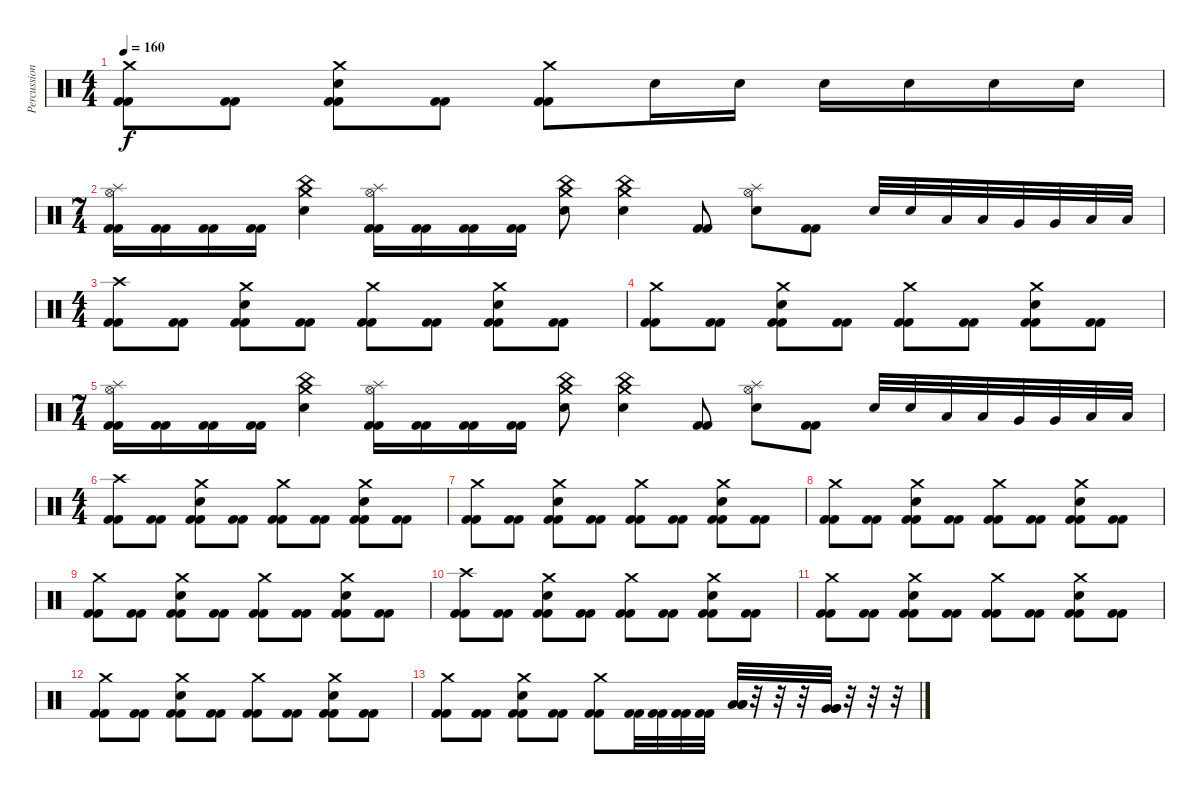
\track ("Percussion" "Percussion") {instrument percussion}
\staff {score}
\articulation defaults
\ts (4 4)
\tempo 160
\clef neutral
\ks c
("Crash medium (hit)" "Kick (hit) 2" "Kick (hit) 2").8{dy f} ("Kick (hit) 2" "Kick (hit) 2").8 ("Crash medium (hit)" "Electric Snare (hit)" "Kick (hit) 2" "Kick (hit) 2").8 ("Kick (hit) 2" "Kick (hit) 2").8 ("Crash medium (hit)" "Kick (hit) 2" "Kick (hit) 2").8 "Electric Snare (hit)".16 "Electric Snare (hit)".16 "Electric Snare (hit)".16 "Electric Snare (hit)".16 "Electric Snare (hit)".16 "Electric Snare (hit)".16 |
\ts (7 4)
("Hi-Hat (open)" "Splash (hit)" "Kick (hit) 2" "Kick (hit) 2").16 ("Kick (hit) 2" "Kick (hit) 2").16 ("Kick (hit) 2" "Kick (hit) 2").16 ("Kick (hit) 2" "Kick (hit) 2").16 ("Crash medium (hit)" "China (hit)" "Electric Snare (hit)").4 ("Hi-Hat (open)" "Splash (hit)" "Kick (hit) 2" "Kick (hit) 2").16 ("Kick (hit) 2" "Kick (hit) 2").16 ("Kick (hit) 2" "Kick (hit) 2").16 ("Kick (hit) 2" "Kick (hit) 2").16 ("Electric Snare (hit)" "China (hit)" "Crash medium (hit)").8 ("Electric Snare (hit)" "China (hit)" "Crash medium (hit)").4 ("Kick (hit) 2" "Kick (hit) 2").8 ("Splash (hit)" "Hi-Hat (open)" "Electric Snare (hit)").8 ("Kick (hit) 2" "Kick (hit) 2").8 "Electric Snare (hit)".32 "Electric Snare (hit)".32 "Low Tom (hit)".32 "Low Tom (hit)".32 "Very Low Tom (hit)".32 "Very Low Tom (hit)".32 "Low Floor Tom (hit)".32 "Low Floor Tom (hit)".32 |
\ts (4 4)
("Crash high (hit)" "Kick (hit) 2" "Kick (hit) 2").8 ("Kick (hit) 2" "Kick (hit) 2").8 ("Crash medium (hit)" "Electric Snare (hit)" "Kick (hit) 2" "Kick (hit) 2").8 ("Kick (hit) 2" "Kick (hit) 2").8 ("Crash medium (hit)" "Kick (hit) 2" "Kick (hit) 2").8 ("Kick (hit) 2" "Kick (hit) 2").8 ("Crash medium (hit)" "Electric Snare (hit)" "Kick (hit) 2" "Kick (hit) 2").8 ("Kick (hit) 2" "Kick (hit) 2").8 |
("Crash medium (hit)" "Kick (hit) 2" "Kick (hit) 2").8 ("Kick (hit) 2" "Kick (hit) 2").8 ("Crash medium (hit)" "Electric Snare (hit)" "Kick (hit) 2" "Kick (hit) 2").8 ("Kick (hit) 2" "Kick (hit) 2").8 ("Crash medium (hit)" "Kick (hit) 2" "Kick (hit) 2").8 ("Kick (hit) 2" "Kick (hit) 2").8 ("Crash medium (hit)" "Electric Snare (hit)" "Kick (hit) 2" "Kick (hit) 2").8 ("Kick (hit) 2" "Kick (hit) 2").8 |
\ts (7 4)
("Hi-Hat (open)" "Splash (hit)" "Kick (hit) 2" "Kick (hit) 2").16 ("Kick (hit) 2" "Kick (hit) 2").16 ("Kick (hit) 2" "Kick (hit) 2").16 ("Kick (hit) 2" "Kick (hit) 2").16 ("Crash medium (hit)" "China (hit)" "Electric Snare (hit)").4 ("Hi-Hat (open)" "Splash (hit)" "Kick (hit) 2" "Kick (hit) 2").16 ("Kick (hit) 2" "Kick (hit) 2").16 ("Kick (hit) 2" "Kick (hit) 2").16 ("Kick (hit) 2" "Kick (hit) 2").16 ("Electric Snare (hit)" "China (hit)" "Crash medium (hit)").8 ("Electric Snare (hit)" "China (hit)" "Crash medium (hit)").4 ("Kick (hit) 2" "Kick (hit) 2").8 ("Splash (hit)" "Hi-Hat (open)" "Electric Snare (hit)").8 ("Kick (hit) 2" "Kick (hit) 2").8 "Electric Snare (hit)".32 "Electric Snare (hit)".32 "Low Tom (hit)".32 "Low Tom (hit)".32 "Very Low Tom (hit)".32 "Very Low Tom (hit)".32 "Low Floor Tom (hit)".32 "Low Floor Tom (hit)".32 |
\ts (4 4)
("Crash high (hit)" "Kick (hit) 2" "Kick (hit) 2").8 ("Kick (hit) 2" "Kick (hit) 2").8 ("Crash medium (hit)" "Electric Snare (hit)" "Kick (hit) 2" "Kick (hit) 2").8 ("Kick (hit) 2" "Kick (hit) 2").8 ("Crash medium (hit)" "Kick (hit) 2" "Kick (hit) 2").8 ("Kick (hit) 2" "Kick (hit) 2").8 ("Crash medium (hit)" "Electric Snare (hit)" "Kick (hit) 2" "Kick (hit) 2").8 ("Kick (hit) 2" "Kick (hit) 2").8 |
("Crash medium (hit)" "Kick (hit) 2" "Kick (hit) 2").8 ("Kick (hit) 2" "Kick (hit) 2").8 ("Crash medium (hit)" "Electric Snare (hit)" "Kick (hit) 2" "Kick (hit) 2").8 ("Kick (hit) 2" "Kick (hit) 2").8 ("Crash medium (hit)" "Kick (hit) 2" "Kick (hit) 2").8 ("Kick (hit) 2" "Kick (hit) 2").8 ("Crash medium (hit)" "Electric Snare (hit)" "Kick (hit) 2" "Kick (hit) 2").8 ("Kick (hit) 2" "Kick (hit) 2").8 |
("Crash medium (hit)" "Kick (hit) 2" "Kick (hit) 2").8 ("Kick (hit) 2" "Kick (hit) 2").8 ("Crash medium (hit)" "Electric Snare (hit)" "Kick (hit) 2" "Kick (hit) 2").8 ("Kick (hit) 2" "Kick (hit) 2").8 ("Crash medium (hit)" "Kick (hit) 2" "Kick (hit) 2").8 ("Kick (hit) 2" "Kick (hit) 2").8 ("Crash medium (hit)" "Electric Snare (hit)" "Kick (hit) 2" "Kick (hit) 2").8 ("Kick (hit) 2" "Kick (hit) 2").8 |
("Crash medium (hit)" "Kick (hit) 2" "Kick (hit) 2").8 ("Kick (hit) 2" "Kick (hit) 2").8 ("Crash medium (hit)" "Electric Snare (hit)" "Kick (hit) 2" "Kick (hit) 2").8 ("Kick (hit) 2" "Kick (hit) 2").8 ("Crash medium (hit)" "Kick (hit) 2" "Kick (hit) 2").8 ("Kick (hit) 2" "Kick (hit) 2").8 ("Crash medium (hit)" "Electric Snare (hit)" "Kick (hit) 2" "Kick (hit) 2").8 ("Kick (hit) 2" "Kick (hit) 2").8 |
("Crash high (hit)" "Kick (hit) 2" "Kick (hit) 2").8 ("Kick (hit) 2" "Kick (hit) 2").8 ("Crash medium (hit)" "Electric Snare (hit)" "Kick (hit) 2" "Kick (hit) 2").8 ("Kick (hit) 2" "Kick (hit) 2").8 ("Crash medium (hit)" "Kick (hit) 2" "Kick (hit) 2").8 ("Kick (hit) 2" "Kick (hit) 2").8 ("Crash medium (hit)" "Electric Snare (hit)" "Kick (hit) 2" "Kick (hit) 2").8 ("Kick (hit) 2" "Kick (hit) 2").8 |
("Crash medium (hit)" "Kick (hit) 2" "Kick (hit) 2").8 ("Kick (hit) 2" "Kick (hit) 2").8 ("Crash medium (hit)" "Electric Snare (hit)" "Kick (hit) 2" "Kick (hit) 2").8 ("Kick (hit) 2" "Kick (hit) 2").8 ("Crash medium (hit)" "Kick (hit) 2" "Kick (hit) 2").8 ("Kick (hit) 2" "Kick (hit) 2").8 ("Crash medium (hit)" "Electric Snare (hit)" "Kick (hit) 2" "Kick (hit) 2").8 ("Kick (hit) 2" "Kick (hit) 2").8 |
("Crash medium (hit)" "Kick (hit) 2" "Kick (hit) 2").8 ("Kick (hit) 2" "Kick (hit) 2").8 ("Crash medium (hit)" "Electric Snare (hit)" "Kick (hit) 2" "Kick (hit) 2").8 ("Kick (hit) 2" "Kick (hit) 2").8 ("Crash medium (hit)" "Kick (hit) 2" "Kick (hit) 2").8 ("Kick (hit) 2" "Kick (hit) 2").8 ("Crash medium (hit)" "Electric Snare (hit)" "Kick (hit) 2" "Kick (hit) 2").8 ("Kick (hit) 2" "Kick (hit) 2").8 |
("Crash medium (hit)" "Kick (hit) 2" "Kick (hit) 2").8 ("Kick (hit) 2" "Kick (hit) 2").8 ("Crash medium (hit)" "Electric Snare (hit)" "Kick (hit) 2" "Kick (hit) 2").8 ("Kick (hit) 2" "Kick (hit) 2").8 ("Crash medium (hit)" "Kick (hit) 2" "Kick (hit) 2").8 ("Kick (hit) 2" "Kick (hit) 2").32 ("Kick (hit) 2" "Kick (hit) 2").32 ("Kick (hit) 2" "Kick (hit) 2").32 ("Kick (hit) 2" "Kick (hit) 2").32 ("Low Tom (hit)" "Low Tom (hit)" "Low Tom (hit)").32 r.32 r.32 r.32 ("Very Low Tom (hit)" "Very Low Tom (hit)" "Very Low Tom (hit)").32 r.32 r.32 r.32
